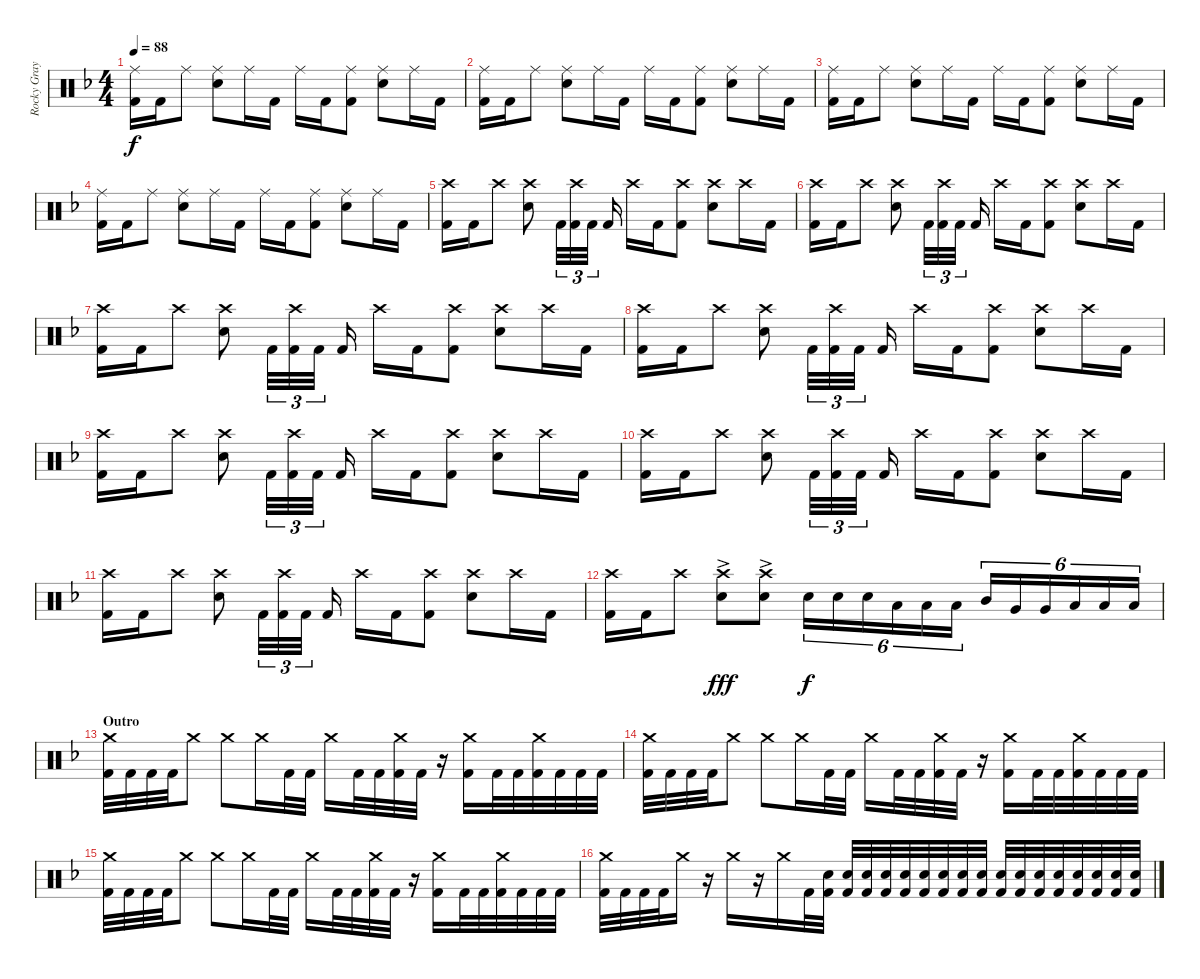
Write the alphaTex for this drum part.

\track ("Rocky Gray" "Rocky Gray") {instrument percussion}
\staff {score}
\articulation defaults
\ts (4 4)
\tempo 88
\clef neutral
\ks f
("Ride (middle)" "Kick (hit) 2").16{dy f} "Kick (hit) 2".16 "Ride (middle)".8 ("Ride (middle)" "Snare (hit) 2").8 "Ride (middle)".16 "Kick (hit) 2".16 "Ride (middle)".16 "Kick (hit) 2".16 ("Ride (middle)" "Kick (hit) 2").8 ("Ride (middle)" "Snare (hit) 2").8 "Ride (middle)".16 "Kick (hit) 2".16 |
("Ride (middle)" "Kick (hit) 2").16 "Kick (hit) 2".16 "Ride (middle)".8 ("Ride (middle)" "Snare (hit) 2").8 "Ride (middle)".16 "Kick (hit) 2".16 "Ride (middle)".16 "Kick (hit) 2".16 ("Ride (middle)" "Kick (hit) 2").8 ("Ride (middle)" "Snare (hit) 2").8 "Ride (middle)".16 "Kick (hit) 2".16 |
("Ride (middle)" "Kick (hit) 2").16 "Kick (hit) 2".16 "Ride (middle)".8 ("Ride (middle)" "Snare (hit) 2").8 "Ride (middle)".16 "Kick (hit) 2".16 "Ride (middle)".16 "Kick (hit) 2".16 ("Ride (middle)" "Kick (hit) 2").8 ("Ride (middle)" "Snare (hit) 2").8 "Ride (middle)".16 "Kick (hit) 2".16 |
("Ride (middle)" "Kick (hit) 2").16 "Kick (hit) 2".16 "Ride (middle)".8 ("Ride (middle)" "Snare (hit) 2").8 "Ride (middle)".16 "Kick (hit) 2".16 "Ride (middle)".16 "Kick (hit) 2".16 ("Ride (middle)" "Kick (hit) 2").8 ("Ride (middle)" "Snare (hit) 2").8 "Ride (middle)".16 "Kick (hit) 2".16 |
("Crash high (hit)" "Kick (hit) 2").16 "Kick (hit) 2".16 "Crash high (hit)".8 ("Crash high (hit)" "Snare (hit) 2").8 "Kick (hit) 2".32{tu (3 2)} ("Crash high (hit)" "Kick (hit) 2").32{tu (3 2)} "Kick (hit) 2".32{tu (3 2)} "Kick (hit) 2".16 "Crash high (hit)".16 "Kick (hit) 2".16 ("Crash high (hit)" "Kick (hit) 2").8 ("Crash high (hit)" "Snare (hit) 2").8 "Crash high (hit)".16 "Kick (hit) 2".16 |
("Crash high (hit)" "Kick (hit) 2").16 "Kick (hit) 2".16 "Crash high (hit)".8 ("Crash high (hit)" "Snare (hit) 2").8 "Kick (hit) 2".32{tu (3 2)} ("Crash high (hit)" "Kick (hit) 2").32{tu (3 2)} "Kick (hit) 2".32{tu (3 2)} "Kick (hit) 2".16 "Crash high (hit)".16 "Kick (hit) 2".16 ("Crash high (hit)" "Kick (hit) 2").8 ("Crash high (hit)" "Snare (hit) 2").8 "Crash high (hit)".16 "Kick (hit) 2".16 |
("Crash high (hit)" "Kick (hit) 2").16 "Kick (hit) 2".16 "Crash high (hit)".8 ("Crash high (hit)" "Snare (hit) 2").8 "Kick (hit) 2".32{tu (3 2)} ("Crash high (hit)" "Kick (hit) 2").32{tu (3 2)} "Kick (hit) 2".32{tu (3 2)} "Kick (hit) 2".16 "Crash high (hit)".16 "Kick (hit) 2".16 ("Crash high (hit)" "Kick (hit) 2").8 ("Crash high (hit)" "Snare (hit) 2").8 "Crash high (hit)".16 "Kick (hit) 2".16 |
("Crash high (hit)" "Kick (hit) 2").16 "Kick (hit) 2".16 "Crash high (hit)".8 ("Crash high (hit)" "Snare (hit) 2").8 "Kick (hit) 2".32{tu (3 2)} ("Crash high (hit)" "Kick (hit) 2").32{tu (3 2)} "Kick (hit) 2".32{tu (3 2)} "Kick (hit) 2".16 "Crash high (hit)".16 "Kick (hit) 2".16 ("Crash high (hit)" "Kick (hit) 2").8 ("Crash high (hit)" "Snare (hit) 2").8 "Crash high (hit)".16 "Kick (hit) 2".16 |
("Crash high (hit)" "Kick (hit) 2").16 "Kick (hit) 2".16 "Crash high (hit)".8 ("Crash high (hit)" "Snare (hit) 2").8 "Kick (hit) 2".32{tu (3 2)} ("Crash high (hit)" "Kick (hit) 2").32{tu (3 2)} "Kick (hit) 2".32{tu (3 2)} "Kick (hit) 2".16 "Crash high (hit)".16 "Kick (hit) 2".16 ("Crash high (hit)" "Kick (hit) 2").8 ("Crash high (hit)" "Snare (hit) 2").8 "Crash high (hit)".16 "Kick (hit) 2".16 |
("Crash high (hit)" "Kick (hit) 2").16 "Kick (hit) 2".16 "Crash high (hit)".8 ("Crash high (hit)" "Snare (hit) 2").8 "Kick (hit) 2".32{tu (3 2)} ("Crash high (hit)" "Kick (hit) 2").32{tu (3 2)} "Kick (hit) 2".32{tu (3 2)} "Kick (hit) 2".16 "Crash high (hit)".16 "Kick (hit) 2".16 ("Crash high (hit)" "Kick (hit) 2").8 ("Crash high (hit)" "Snare (hit) 2").8 "Crash high (hit)".16 "Kick (hit) 2".16 |
("Crash high (hit)" "Kick (hit) 2").16 "Kick (hit) 2".16 "Crash high (hit)".8 ("Crash high (hit)" "Snare (hit) 2").8 "Kick (hit) 2".32{tu (3 2)} ("Crash high (hit)" "Kick (hit) 2").32{tu (3 2)} "Kick (hit) 2".32{tu (3 2)} "Kick (hit) 2".16 "Crash high (hit)".16 "Kick (hit) 2".16 ("Crash high (hit)" "Kick (hit) 2").8 ("Crash high (hit)" "Snare (hit) 2").8 "Crash high (hit)".16 "Kick (hit) 2".16 |
("Crash high (hit)" "Kick (hit) 2").16 "Kick (hit) 2".16 "Crash high (hit)".8 ("Crash high (hit)" "Snare (hit) 2"{ac}).8{dy fff} ("Crash high (hit)" "Snare (hit) 2"{ac}).8 "Snare (hit) 2".16{tu (6 4) dy f} "Snare (hit) 2".16{tu (6 4)} "Snare (hit) 2".16{tu (6 4)} "Low Tom (hit)".16{tu (6 4)} "Low Tom (hit)".16{tu (6 4)} "Low Tom (hit)".16{tu (6 4)} "Mid Tom (hit)".16{tu (6 4)} "Very Low Tom (hit)".16{tu (6 4)} "Very Low Tom (hit)".16{tu (6 4)} "Low Floor Tom (hit)".16{tu (6 4)} "Low Floor Tom (hit)".16{tu (6 4)} "Low Floor Tom (hit)".16{tu (6 4)} |
\section ("" "Outro")
("Crash medium (hit)" "Kick (hit) 2").32 "Kick (hit) 2".32 "Kick (hit) 2".32 "Kick (hit) 2".32 "Crash medium (hit)".8 "Crash medium (hit)".8 "Crash medium (hit)".16 "Kick (hit) 2".32 "Kick (hit) 2".32 "Crash medium (hit)".16 "Kick (hit) 2".32 "Kick (hit) 2".32 ("Crash medium (hit)" "Kick (hit) 2").32 "Kick (hit) 2".32 r.16 ("Crash medium (hit)" "Kick (hit) 2").16 "Kick (hit) 2".32 "Kick (hit) 2".32 ("Crash medium (hit)" "Kick (hit) 2").32 "Kick (hit) 2".32 "Kick (hit) 2".32 "Kick (hit) 2".32 |
("Crash medium (hit)" "Kick (hit) 2").32 "Kick (hit) 2".32 "Kick (hit) 2".32 "Kick (hit) 2".32 "Crash medium (hit)".8 "Crash medium (hit)".8 "Crash medium (hit)".16 "Kick (hit) 2".32 "Kick (hit) 2".32 "Crash medium (hit)".16 "Kick (hit) 2".32 "Kick (hit) 2".32 ("Crash medium (hit)" "Kick (hit) 2").32 "Kick (hit) 2".32 r.16 ("Crash medium (hit)" "Kick (hit) 2").16 "Kick (hit) 2".32 "Kick (hit) 2".32 ("Crash medium (hit)" "Kick (hit) 2").32 "Kick (hit) 2".32 "Kick (hit) 2".32 "Kick (hit) 2".32 |
("Crash medium (hit)" "Kick (hit) 2").32 "Kick (hit) 2".32 "Kick (hit) 2".32 "Kick (hit) 2".32 "Crash medium (hit)".8 "Crash medium (hit)".8 "Crash medium (hit)".16 "Kick (hit) 2".32 "Kick (hit) 2".32 "Crash medium (hit)".16 "Kick (hit) 2".32 "Kick (hit) 2".32 ("Crash medium (hit)" "Kick (hit) 2").32 "Kick (hit) 2".32 r.16 ("Crash medium (hit)" "Kick (hit) 2").16 "Kick (hit) 2".32 "Kick (hit) 2".32 ("Crash medium (hit)" "Kick (hit) 2").32 "Kick (hit) 2".32 "Kick (hit) 2".32 "Kick (hit) 2".32 |
("Crash medium (hit)" "Kick (hit) 2").32 "Kick (hit) 2".32 "Kick (hit) 2".32 "Kick (hit) 2".32 "Crash medium (hit)".16 r.16 "Crash medium (hit)".16 r.16 "Crash medium (hit)".16 "Kick (hit) 2".32 ("Snare (hit) 2" "Kick (hit) 2").32 ("Snare (hit) 2" "Kick (hit) 2").32 ("Snare (hit) 2" "Kick (hit) 2").32 ("Snare (hit) 2" "Kick (hit) 2").32 ("Snare (hit) 2" "Kick (hit) 2").32 ("Snare (hit) 2" "Kick (hit) 2").32 ("Snare (hit) 2" "Kick (hit) 2").32 ("Snare (hit) 2" "Kick (hit) 2").32 ("Snare (hit) 2" "Kick (hit) 2").32 ("Snare (hit) 2" "Kick (hit) 2").32 ("Snare (hit) 2" "Kick (hit) 2").32 ("Snare (hit) 2" "Kick (hit) 2").32 ("Snare (hit) 2" "Kick (hit) 2").32 ("Snare (hit) 2" "Kick (hit) 2").32 ("Snare (hit) 2" "Kick (hit) 2").32 ("Snare (hit) 2" "Kick (hit) 2").32 ("Snare (hit) 2" "Kick (hit) 2").32
